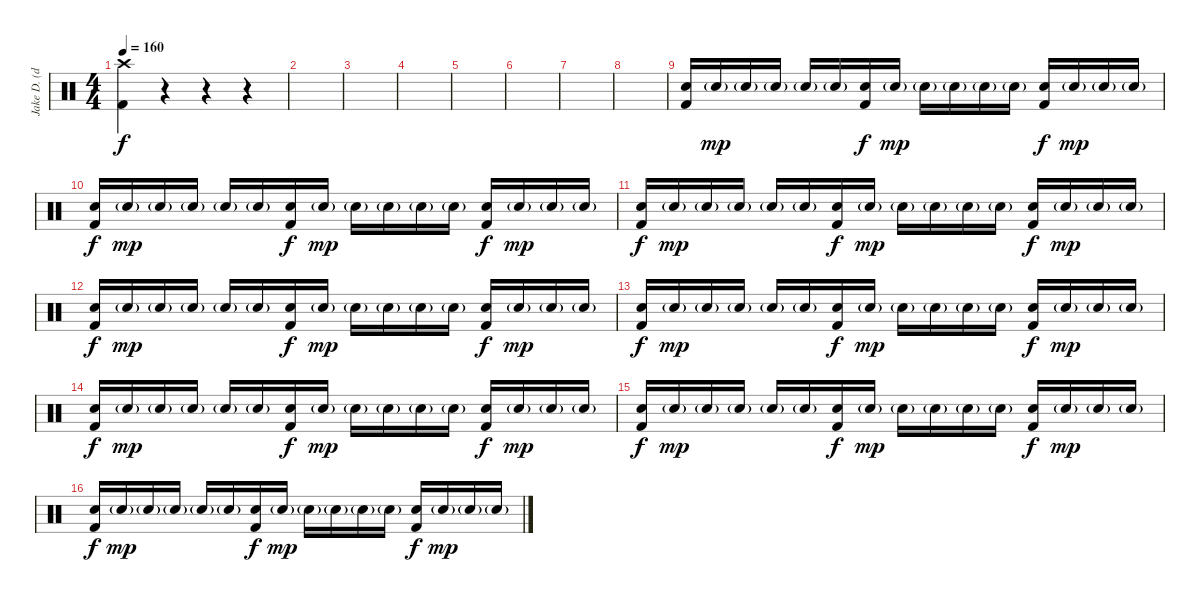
\track ("Jake D. (drums)" "Jake D. (d") {instrument percussion}
\staff {score}
\articulation defaults
\ts (4 4)
\tempo 160
\clef neutral
\ks c
("Crash high (hit)" "Kick (hit) 2").4{dy f volume 16} r.4 r.4{volume 0} r.4 |
|
|
|
|
|
|
|
("Electric Snare (hit)" "Kick (hit) 2").16{volume 16} "Electric Snare (hit)"{g}.16{dy mp} "Electric Snare (hit)"{g}.16 "Electric Snare (hit)"{g}.16 "Electric Snare (hit)"{g}.16 "Electric Snare (hit)"{g}.16 ("Electric Snare (hit)" "Kick (hit) 2").16{dy f} "Electric Snare (hit)"{g}.16{dy mp} "Electric Snare (hit)"{g}.16 "Electric Snare (hit)"{g}.16 "Electric Snare (hit)"{g}.16 "Electric Snare (hit)"{g}.16 ("Electric Snare (hit)" "Kick (hit) 2").16{dy f} "Electric Snare (hit)"{g}.16{dy mp} "Electric Snare (hit)"{g}.16 "Electric Snare (hit)"{g}.16 |
("Electric Snare (hit)" "Kick (hit) 2").16{dy f} "Electric Snare (hit)"{g}.16{dy mp} "Electric Snare (hit)"{g}.16 "Electric Snare (hit)"{g}.16 "Electric Snare (hit)"{g}.16 "Electric Snare (hit)"{g}.16 ("Electric Snare (hit)" "Kick (hit) 2").16{dy f} "Electric Snare (hit)"{g}.16{dy mp} "Electric Snare (hit)"{g}.16 "Electric Snare (hit)"{g}.16 "Electric Snare (hit)"{g}.16 "Electric Snare (hit)"{g}.16 ("Electric Snare (hit)" "Kick (hit) 2").16{dy f} "Electric Snare (hit)"{g}.16{dy mp} "Electric Snare (hit)"{g}.16 "Electric Snare (hit)"{g}.16 |
("Electric Snare (hit)" "Kick (hit) 2").16{dy f} "Electric Snare (hit)"{g}.16{dy mp} "Electric Snare (hit)"{g}.16 "Electric Snare (hit)"{g}.16 "Electric Snare (hit)"{g}.16 "Electric Snare (hit)"{g}.16 ("Electric Snare (hit)" "Kick (hit) 2").16{dy f} "Electric Snare (hit)"{g}.16{dy mp} "Electric Snare (hit)"{g}.16 "Electric Snare (hit)"{g}.16 "Electric Snare (hit)"{g}.16 "Electric Snare (hit)"{g}.16 ("Electric Snare (hit)" "Kick (hit) 2").16{dy f} "Electric Snare (hit)"{g}.16{dy mp} "Electric Snare (hit)"{g}.16 "Electric Snare (hit)"{g}.16 |
("Electric Snare (hit)" "Kick (hit) 2").16{dy f} "Electric Snare (hit)"{g}.16{dy mp} "Electric Snare (hit)"{g}.16 "Electric Snare (hit)"{g}.16 "Electric Snare (hit)"{g}.16 "Electric Snare (hit)"{g}.16 ("Electric Snare (hit)" "Kick (hit) 2").16{dy f} "Electric Snare (hit)"{g}.16{dy mp} "Electric Snare (hit)"{g}.16 "Electric Snare (hit)"{g}.16 "Electric Snare (hit)"{g}.16 "Electric Snare (hit)"{g}.16 ("Electric Snare (hit)" "Kick (hit) 2").16{dy f} "Electric Snare (hit)"{g}.16{dy mp} "Electric Snare (hit)"{g}.16 "Electric Snare (hit)"{g}.16 |
("Electric Snare (hit)" "Kick (hit) 2").16{dy f} "Electric Snare (hit)"{g}.16{dy mp} "Electric Snare (hit)"{g}.16 "Electric Snare (hit)"{g}.16 "Electric Snare (hit)"{g}.16 "Electric Snare (hit)"{g}.16 ("Electric Snare (hit)" "Kick (hit) 2").16{dy f} "Electric Snare (hit)"{g}.16{dy mp} "Electric Snare (hit)"{g}.16 "Electric Snare (hit)"{g}.16 "Electric Snare (hit)"{g}.16 "Electric Snare (hit)"{g}.16 ("Electric Snare (hit)" "Kick (hit) 2").16{dy f} "Electric Snare (hit)"{g}.16{dy mp} "Electric Snare (hit)"{g}.16 "Electric Snare (hit)"{g}.16 |
("Electric Snare (hit)" "Kick (hit) 2").16{dy f} "Electric Snare (hit)"{g}.16{dy mp} "Electric Snare (hit)"{g}.16 "Electric Snare (hit)"{g}.16 "Electric Snare (hit)"{g}.16 "Electric Snare (hit)"{g}.16 ("Electric Snare (hit)" "Kick (hit) 2").16{dy f} "Electric Snare (hit)"{g}.16{dy mp} "Electric Snare (hit)"{g}.16 "Electric Snare (hit)"{g}.16 "Electric Snare (hit)"{g}.16 "Electric Snare (hit)"{g}.16 ("Electric Snare (hit)" "Kick (hit) 2").16{dy f} "Electric Snare (hit)"{g}.16{dy mp} "Electric Snare (hit)"{g}.16 "Electric Snare (hit)"{g}.16 |
("Electric Snare (hit)" "Kick (hit) 2").16{dy f} "Electric Snare (hit)"{g}.16{dy mp} "Electric Snare (hit)"{g}.16 "Electric Snare (hit)"{g}.16 "Electric Snare (hit)"{g}.16 "Electric Snare (hit)"{g}.16 ("Electric Snare (hit)" "Kick (hit) 2").16{dy f} "Electric Snare (hit)"{g}.16{dy mp} "Electric Snare (hit)"{g}.16 "Electric Snare (hit)"{g}.16 "Electric Snare (hit)"{g}.16 "Electric Snare (hit)"{g}.16 ("Electric Snare (hit)" "Kick (hit) 2").16{dy f} "Electric Snare (hit)"{g}.16{dy mp} "Electric Snare (hit)"{g}.16 "Electric Snare (hit)"{g}.16 |
("Electric Snare (hit)" "Kick (hit) 2").16{dy f} "Electric Snare (hit)"{g}.16{dy mp} "Electric Snare (hit)"{g}.16 "Electric Snare (hit)"{g}.16 "Electric Snare (hit)"{g}.16 "Electric Snare (hit)"{g}.16 ("Electric Snare (hit)" "Kick (hit) 2").16{dy f} "Electric Snare (hit)"{g}.16{dy mp} "Electric Snare (hit)"{g}.16 "Electric Snare (hit)"{g}.16 "Electric Snare (hit)"{g}.16 "Electric Snare (hit)"{g}.16 ("Electric Snare (hit)" "Kick (hit) 2").16{dy f} "Electric Snare (hit)"{g}.16{dy mp} "Electric Snare (hit)"{g}.16 "Electric Snare (hit)"{g}.16
